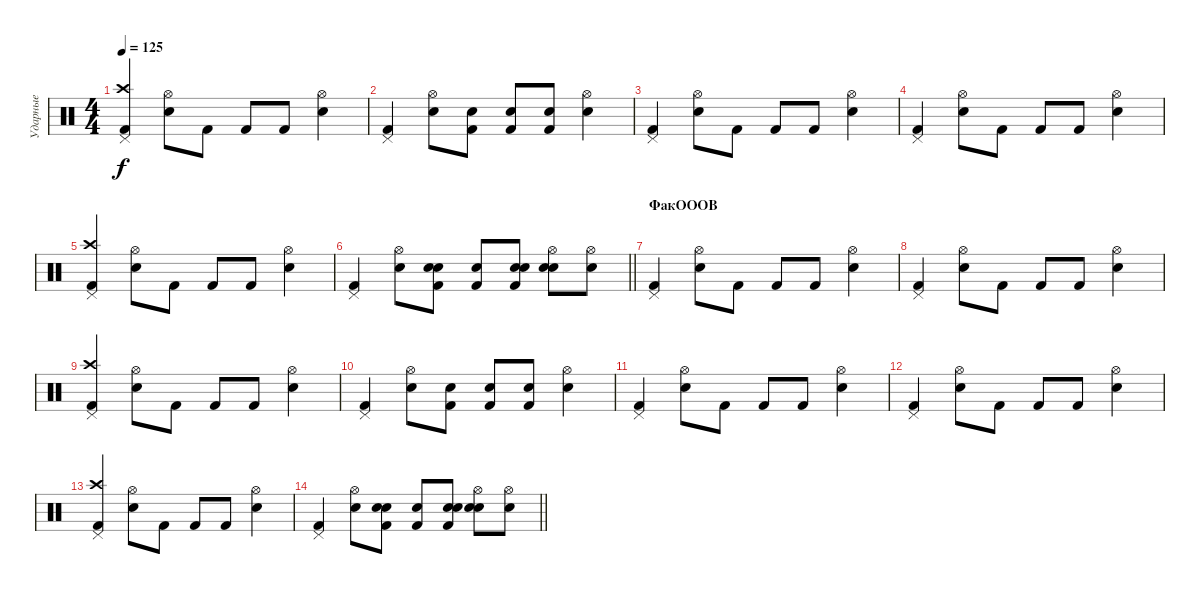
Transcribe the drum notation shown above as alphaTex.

\track ("Ударные" "Ударные") {instrument percussion}
\staff {score}
\articulation defaults
\ts (4 4)
\tempo 125
\clef neutral
\ks c
("Kick (hit) 2" "Crash high (hit)" "Pedal Hi-Hat (hit)").4{dy f} ("Electric Snare (hit)" "Hi-Hat (open)").8 "Kick (hit) 2".8 "Kick (hit) 2".8 "Kick (hit) 2".8 ("Electric Snare (hit)" "Hi-Hat (open)").4 |
("Kick (hit) 2" "Pedal Hi-Hat (hit)").4 ("Electric Snare (hit)" "Hi-Hat (open)").8 ("Electric Snare (hit)" "Kick (hit) 2").8 ("Electric Snare (hit)" "Kick (hit) 2").8 ("Electric Snare (hit)" "Kick (hit) 2").8 ("Electric Snare (hit)" "Hi-Hat (open)").4 |
("Kick (hit) 2" "Pedal Hi-Hat (hit)").4 ("Electric Snare (hit)" "Hi-Hat (open)").8 "Kick (hit) 2".8 "Kick (hit) 2".8 "Kick (hit) 2".8 ("Electric Snare (hit)" "Hi-Hat (open)").4 |
("Kick (hit) 2" "Pedal Hi-Hat (hit)").4 ("Electric Snare (hit)" "Hi-Hat (open)").8 "Kick (hit) 2".8 "Kick (hit) 2".8 "Kick (hit) 2".8 ("Electric Snare (hit)" "Hi-Hat (open)").4 |
("Kick (hit) 2" "Crash high (hit)" "Pedal Hi-Hat (hit)").4 ("Electric Snare (hit)" "Hi-Hat (open)").8 "Kick (hit) 2".8 "Kick (hit) 2".8 "Kick (hit) 2".8 ("Electric Snare (hit)" "Hi-Hat (open)").4 |
\barLineRight lightlight
("Kick (hit) 2" "Pedal Hi-Hat (hit)").4 ("Electric Snare (hit)" "Hi-Hat (open)").8 ("Snare (hit) 2" "Electric Snare (hit)" "Kick (hit) 2").8 ("Electric Snare (hit)" "Kick (hit) 2").8 ("Snare (hit) 2" "Electric Snare (hit)" "Kick (hit) 2").8 ("Snare (hit) 2" "Electric Snare (hit)" "Hi-Hat (open)").8 ("Hi-Hat (open)" "Snare (hit) 2").8 |
\section ("" "ФакОООВ")
("Kick (hit) 2" "Pedal Hi-Hat (hit)").4 ("Electric Snare (hit)" "Hi-Hat (open)").8 "Kick (hit) 2".8 "Kick (hit) 2".8 "Kick (hit) 2".8 ("Electric Snare (hit)" "Hi-Hat (open)").4 |
("Kick (hit) 2" "Pedal Hi-Hat (hit)").4 ("Electric Snare (hit)" "Hi-Hat (open)").8 "Kick (hit) 2".8 "Kick (hit) 2".8 "Kick (hit) 2".8 ("Electric Snare (hit)" "Hi-Hat (open)").4 |
("Kick (hit) 2" "Crash high (hit)" "Pedal Hi-Hat (hit)").4 ("Electric Snare (hit)" "Hi-Hat (open)").8 "Kick (hit) 2".8 "Kick (hit) 2".8 "Kick (hit) 2".8 ("Electric Snare (hit)" "Hi-Hat (open)").4 |
("Kick (hit) 2" "Pedal Hi-Hat (hit)").4 ("Electric Snare (hit)" "Hi-Hat (open)").8 ("Electric Snare (hit)" "Kick (hit) 2").8 ("Electric Snare (hit)" "Kick (hit) 2").8 ("Electric Snare (hit)" "Kick (hit) 2").8 ("Electric Snare (hit)" "Hi-Hat (open)").4 |
("Kick (hit) 2" "Pedal Hi-Hat (hit)").4 ("Electric Snare (hit)" "Hi-Hat (open)").8 "Kick (hit) 2".8 "Kick (hit) 2".8 "Kick (hit) 2".8 ("Electric Snare (hit)" "Hi-Hat (open)").4 |
("Kick (hit) 2" "Pedal Hi-Hat (hit)").4 ("Electric Snare (hit)" "Hi-Hat (open)").8 "Kick (hit) 2".8 "Kick (hit) 2".8 "Kick (hit) 2".8 ("Electric Snare (hit)" "Hi-Hat (open)").4 |
("Kick (hit) 2" "Crash high (hit)" "Pedal Hi-Hat (hit)").4 ("Electric Snare (hit)" "Hi-Hat (open)").8 "Kick (hit) 2".8 "Kick (hit) 2".8 "Kick (hit) 2".8 ("Electric Snare (hit)" "Hi-Hat (open)").4 |
\barLineRight lightlight
("Kick (hit) 2" "Pedal Hi-Hat (hit)").4 ("Electric Snare (hit)" "Hi-Hat (open)").8 ("Snare (hit) 2" "Electric Snare (hit)" "Kick (hit) 2").8 ("Electric Snare (hit)" "Kick (hit) 2").8 ("Snare (hit) 2" "Electric Snare (hit)" "Kick (hit) 2").8 ("Snare (hit) 2" "Electric Snare (hit)" "Hi-Hat (open)").8 ("Hi-Hat (open)" "Snare (hit) 2").8
